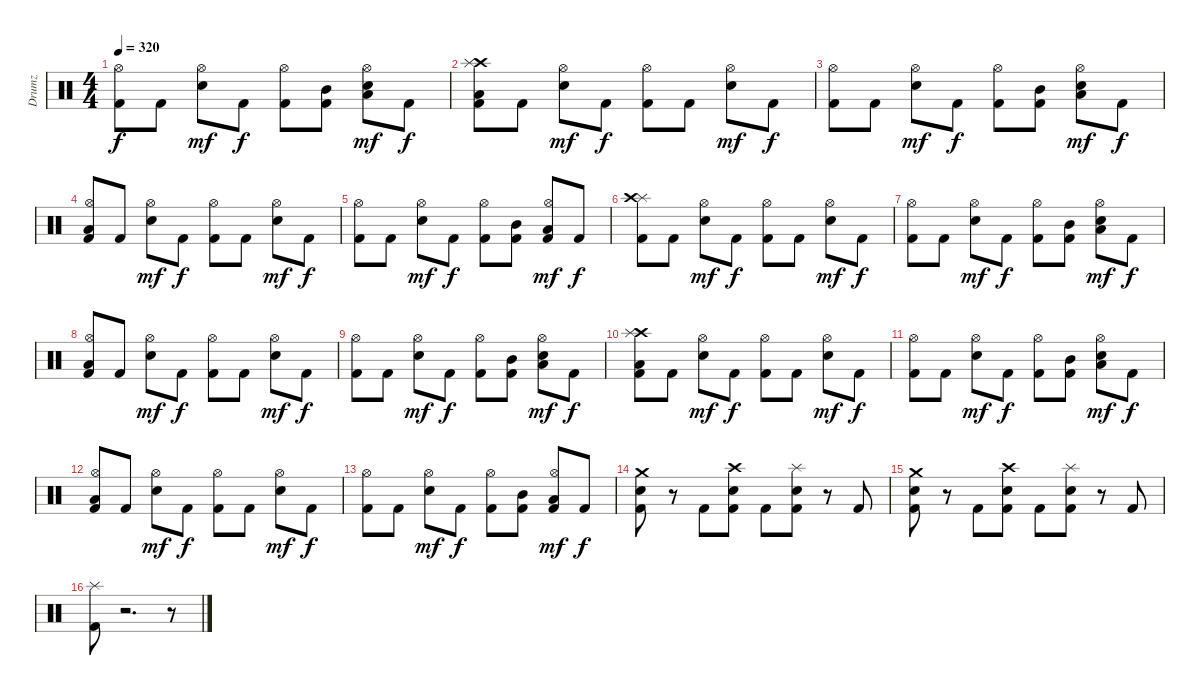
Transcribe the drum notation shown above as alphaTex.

\track ("Drumz" "Drumz") {instrument percussion}
\staff {score}
\articulation defaults
\ts (4 4)
\tempo 320
\clef neutral
\ks c
("Kick (hit) 2" "Hi-Hat (open)").8{dy f} "Kick (hit) 2".8 ("Snare (hit) 2" "Hi-Hat (open)").8{dy mf} "Kick (hit) 2".8{dy f} ("Kick (hit) 2" "Hi-Hat (open)").8 ("Kick (hit) 2" "Mid Tom (hit)").8 ("Hi-Hat (open)" "Snare (hit) 2" "Low Tom (hit)").8{dy mf} "Kick (hit) 2".8{dy f} |
("Kick (hit) 2" "Low Floor Tom (hit)" "Crash high (hit)" "Splash (hit)").8 "Kick (hit) 2".8 ("Snare (hit) 2" "Hi-Hat (open)").8{dy mf} "Kick (hit) 2".8{dy f} ("Kick (hit) 2" "Hi-Hat (open)").8 "Kick (hit) 2".8 ("Snare (hit) 2" "Hi-Hat (open)").8{dy mf} "Kick (hit) 2".8{dy f} |
("Kick (hit) 2" "Hi-Hat (open)").8 "Kick (hit) 2".8 ("Snare (hit) 2" "Hi-Hat (open)").8{dy mf} "Kick (hit) 2".8{dy f} ("Kick (hit) 2" "Hi-Hat (open)").8 ("Kick (hit) 2" "Mid Tom (hit)").8 ("Hi-Hat (open)" "Snare (hit) 2" "Low Tom (hit)").8{dy mf} "Kick (hit) 2".8{dy f} |
("Low Floor Tom (hit)" "Hi-Hat (open)" "Kick (hit) 2").8 "Kick (hit) 2".8 ("Snare (hit) 2" "Hi-Hat (open)").8{dy mf} "Kick (hit) 2".8{dy f} ("Kick (hit) 2" "Hi-Hat (open)").8 "Kick (hit) 2".8 ("Snare (hit) 2" "Hi-Hat (open)").8{dy mf} "Kick (hit) 2".8{dy f} |
("Kick (hit) 2" "Hi-Hat (open)").8 "Kick (hit) 2".8 ("Snare (hit) 2" "Hi-Hat (open)").8{dy mf} "Kick (hit) 2".8{dy f} ("Kick (hit) 2" "Hi-Hat (open)").8 ("Mid Tom (hit)" "Kick (hit) 2").8 ("Low Tom (hit)" "Kick (hit) 2" "Hi-Hat (open)").8{dy mf} "Kick (hit) 2".8{dy f} |
("Kick (hit) 2" "Splash (hit)" "Crash high (hit)").8 "Kick (hit) 2".8 ("Snare (hit) 2" "Hi-Hat (open)").8{dy mf} "Kick (hit) 2".8{dy f} ("Kick (hit) 2" "Hi-Hat (open)").8 "Kick (hit) 2".8 ("Snare (hit) 2" "Hi-Hat (open)").8{dy mf} "Kick (hit) 2".8{dy f} |
("Kick (hit) 2" "Hi-Hat (open)").8 "Kick (hit) 2".8 ("Snare (hit) 2" "Hi-Hat (open)").8{dy mf} "Kick (hit) 2".8{dy f} ("Kick (hit) 2" "Hi-Hat (open)").8 ("Kick (hit) 2" "Mid Tom (hit)").8 ("Hi-Hat (open)" "Snare (hit) 2" "Low Tom (hit)").8{dy mf} "Kick (hit) 2".8{dy f} |
("Kick (hit) 2" "Hi-Hat (open)" "Low Floor Tom (hit)").8 "Kick (hit) 2".8 ("Snare (hit) 2" "Hi-Hat (open)").8{dy mf} "Kick (hit) 2".8{dy f} ("Kick (hit) 2" "Hi-Hat (open)").8 "Kick (hit) 2".8 ("Snare (hit) 2" "Hi-Hat (open)").8{dy mf} "Kick (hit) 2".8{dy f} |
("Kick (hit) 2" "Hi-Hat (open)").8 "Kick (hit) 2".8 ("Snare (hit) 2" "Hi-Hat (open)").8{dy mf} "Kick (hit) 2".8{dy f} ("Kick (hit) 2" "Hi-Hat (open)").8 ("Kick (hit) 2" "Mid Tom (hit)").8 ("Hi-Hat (open)" "Snare (hit) 2" "Low Tom (hit)").8{dy mf} "Kick (hit) 2".8{dy f} |
("Kick (hit) 2" "Low Floor Tom (hit)" "Crash high (hit)" "Splash (hit)").8 "Kick (hit) 2".8 ("Snare (hit) 2" "Hi-Hat (open)").8{dy mf} "Kick (hit) 2".8{dy f} ("Kick (hit) 2" "Hi-Hat (open)").8 "Kick (hit) 2".8 ("Snare (hit) 2" "Hi-Hat (open)").8{dy mf} "Kick (hit) 2".8{dy f} |
("Kick (hit) 2" "Hi-Hat (open)").8 "Kick (hit) 2".8 ("Snare (hit) 2" "Hi-Hat (open)").8{dy mf} "Kick (hit) 2".8{dy f} ("Kick (hit) 2" "Hi-Hat (open)").8 ("Kick (hit) 2" "Mid Tom (hit)").8 ("Hi-Hat (open)" "Snare (hit) 2" "Low Tom (hit)").8{dy mf} "Kick (hit) 2".8{dy f} |
("Low Floor Tom (hit)" "Hi-Hat (open)" "Kick (hit) 2").8 "Kick (hit) 2".8 ("Snare (hit) 2" "Hi-Hat (open)").8{dy mf} "Kick (hit) 2".8{dy f} ("Kick (hit) 2" "Hi-Hat (open)").8 "Kick (hit) 2".8 ("Snare (hit) 2" "Hi-Hat (open)").8{dy mf} "Kick (hit) 2".8{dy f} |
("Kick (hit) 2" "Hi-Hat (open)").8 "Kick (hit) 2".8 ("Snare (hit) 2" "Hi-Hat (open)").8{dy mf} "Kick (hit) 2".8{dy f} ("Kick (hit) 2" "Hi-Hat (open)").8 ("Mid Tom (hit)" "Kick (hit) 2").8 ("Low Tom (hit)" "Kick (hit) 2" "Hi-Hat (open)").8{dy mf} "Kick (hit) 2".8{dy f} |
("Crash medium (hit)" "Snare (hit) 2" "Kick (hit) 2").8 r.8 "Kick (hit) 2".8 ("Crash high (hit)" "Snare (hit) 2" "Kick (hit) 2").8 "Kick (hit) 2".8 ("Splash (hit)" "Snare (hit) 2" "Kick (hit) 2").8 r.8 "Kick (hit) 2".8 |
("Crash medium (hit)" "Snare (hit) 2" "Kick (hit) 2").8 r.8 "Kick (hit) 2".8 ("Crash high (hit)" "Snare (hit) 2" "Kick (hit) 2").8 "Kick (hit) 2".8 ("Splash (hit)" "Snare (hit) 2" "Kick (hit) 2").8 r.8 "Kick (hit) 2".8 |
("Kick (hit) 2" "Splash (hit)").8 r.2{d} r.8
